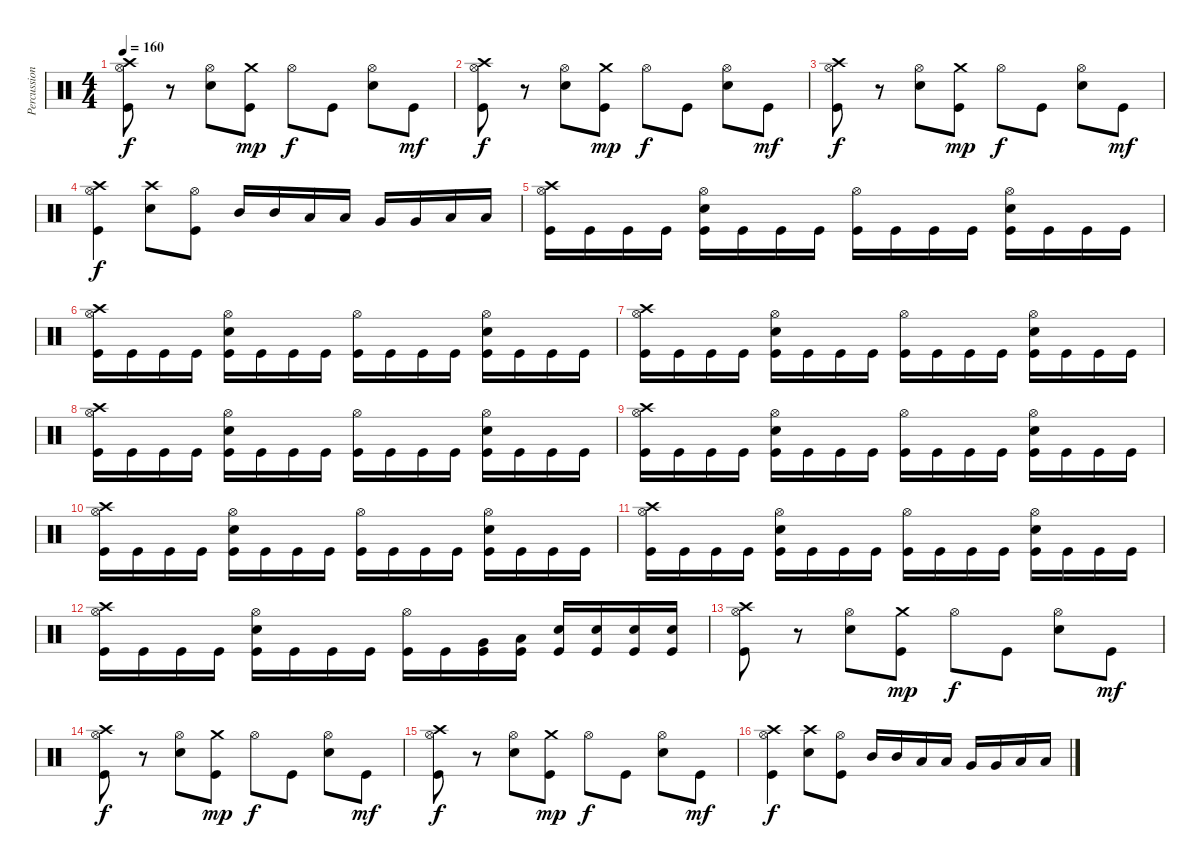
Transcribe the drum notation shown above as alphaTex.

\track ("Percussion" "Percussion") {instrument percussion}
\staff {score}
\articulation defaults
\ts (4 4)
\tempo 160
\clef neutral
\ks c
("Crash high (hit)" "Hi-Hat (open)" "Kick (hit)").8{dy f} r.8 ("Electric Snare (hit)" "Hi-Hat (open)").8 ("Crash medium (hit)" "Kick (hit)").8{dy mp} "Hi-Hat (open)".8{dy f} "Kick (hit)".8 ("Electric Snare (hit)" "Hi-Hat (open)").8 "Kick (hit)".8{dy mf} |
("Crash high (hit)" "Hi-Hat (open)" "Kick (hit)").8{dy f} r.8 ("Electric Snare (hit)" "Hi-Hat (open)").8 ("Crash medium (hit)" "Kick (hit)").8{dy mp} "Hi-Hat (open)".8{dy f} "Kick (hit)".8 ("Electric Snare (hit)" "Hi-Hat (open)").8 "Kick (hit)".8{dy mf} |
("Crash high (hit)" "Hi-Hat (open)" "Kick (hit)").8{dy f} r.8 ("Electric Snare (hit)" "Hi-Hat (open)").8 ("Crash medium (hit)" "Kick (hit)").8{dy mp} "Hi-Hat (open)".8{dy f} "Kick (hit)".8 ("Electric Snare (hit)" "Hi-Hat (open)").8 "Kick (hit)".8{dy mf} |
("Crash high (hit)" "Hi-Hat (open)" "Kick (hit)").4{dy f} ("Crash high (hit)" "Electric Snare (hit)").8 ("Hi-Hat (open)" "Kick (hit)").8 "Mid Tom (hit)".16 "Mid Tom (hit)".16 "Low Tom (hit)".16 "Low Tom (hit)".16 "Very Low Tom (hit)".16 "Very Low Tom (hit)".16 "Low Floor Tom (hit)".16 "Low Floor Tom (hit)".16 |
("Crash high (hit)" "Hi-Hat (open)" "Kick (hit)").16 "Kick (hit)".16 "Kick (hit)".16 "Kick (hit)".16 ("Electric Snare (hit)" "Hi-Hat (open)" "Kick (hit)").16 "Kick (hit)".16 "Kick (hit)".16 "Kick (hit)".16 ("Hi-Hat (open)" "Kick (hit)").16 "Kick (hit)".16 "Kick (hit)".16 "Kick (hit)".16 ("Electric Snare (hit)" "Hi-Hat (open)" "Kick (hit)").16 "Kick (hit)".16 "Kick (hit)".16 "Kick (hit)".16 |
("Crash high (hit)" "Hi-Hat (open)" "Kick (hit)").16 "Kick (hit)".16 "Kick (hit)".16 "Kick (hit)".16 ("Electric Snare (hit)" "Hi-Hat (open)" "Kick (hit)").16 "Kick (hit)".16 "Kick (hit)".16 "Kick (hit)".16 ("Hi-Hat (open)" "Kick (hit)").16 "Kick (hit)".16 "Kick (hit)".16 "Kick (hit)".16 ("Electric Snare (hit)" "Hi-Hat (open)" "Kick (hit)").16 "Kick (hit)".16 "Kick (hit)".16 "Kick (hit)".16 |
("Crash high (hit)" "Hi-Hat (open)" "Kick (hit)").16 "Kick (hit)".16 "Kick (hit)".16 "Kick (hit)".16 ("Electric Snare (hit)" "Hi-Hat (open)" "Kick (hit)").16 "Kick (hit)".16 "Kick (hit)".16 "Kick (hit)".16 ("Hi-Hat (open)" "Kick (hit)").16 "Kick (hit)".16 "Kick (hit)".16 "Kick (hit)".16 ("Electric Snare (hit)" "Hi-Hat (open)" "Kick (hit)").16 "Kick (hit)".16 "Kick (hit)".16 "Kick (hit)".16 |
("Crash high (hit)" "Hi-Hat (open)" "Kick (hit)").16 "Kick (hit)".16 "Kick (hit)".16 "Kick (hit)".16 ("Electric Snare (hit)" "Hi-Hat (open)" "Kick (hit)").16 "Kick (hit)".16 "Kick (hit)".16 "Kick (hit)".16 ("Hi-Hat (open)" "Kick (hit)").16 "Kick (hit)".16 "Kick (hit)".16 "Kick (hit)".16 ("Electric Snare (hit)" "Hi-Hat (open)" "Kick (hit)").16 "Kick (hit)".16 "Kick (hit)".16 "Kick (hit)".16 |
("Crash high (hit)" "Hi-Hat (open)" "Kick (hit)").16 "Kick (hit)".16 "Kick (hit)".16 "Kick (hit)".16 ("Electric Snare (hit)" "Hi-Hat (open)" "Kick (hit)").16 "Kick (hit)".16 "Kick (hit)".16 "Kick (hit)".16 ("Hi-Hat (open)" "Kick (hit)").16 "Kick (hit)".16 "Kick (hit)".16 "Kick (hit)".16 ("Electric Snare (hit)" "Hi-Hat (open)" "Kick (hit)").16 "Kick (hit)".16 "Kick (hit)".16 "Kick (hit)".16 |
("Crash high (hit)" "Hi-Hat (open)" "Kick (hit)").16 "Kick (hit)".16 "Kick (hit)".16 "Kick (hit)".16 ("Electric Snare (hit)" "Hi-Hat (open)" "Kick (hit)").16 "Kick (hit)".16 "Kick (hit)".16 "Kick (hit)".16 ("Hi-Hat (open)" "Kick (hit)").16 "Kick (hit)".16 "Kick (hit)".16 "Kick (hit)".16 ("Electric Snare (hit)" "Hi-Hat (open)" "Kick (hit)").16 "Kick (hit)".16 "Kick (hit)".16 "Kick (hit)".16 |
("Crash high (hit)" "Hi-Hat (open)" "Kick (hit)").16 "Kick (hit)".16 "Kick (hit)".16 "Kick (hit)".16 ("Electric Snare (hit)" "Hi-Hat (open)" "Kick (hit)").16 "Kick (hit)".16 "Kick (hit)".16 "Kick (hit)".16 ("Hi-Hat (open)" "Kick (hit)").16 "Kick (hit)".16 "Kick (hit)".16 "Kick (hit)".16 ("Electric Snare (hit)" "Hi-Hat (open)" "Kick (hit)").16 "Kick (hit)".16 "Kick (hit)".16 "Kick (hit)".16 |
("Crash high (hit)" "Hi-Hat (open)" "Kick (hit)").16 "Kick (hit)".16 "Kick (hit)".16 "Kick (hit)".16 ("Electric Snare (hit)" "Hi-Hat (open)" "Kick (hit)").16 "Kick (hit)".16 "Kick (hit)".16 "Kick (hit)".16 ("Hi-Hat (open)" "Kick (hit)").16 "Kick (hit)".16 ("Very Low Tom (hit)" "Kick (hit)").16 ("Low Floor Tom (hit)" "Kick (hit)").16 ("Electric Snare (hit)" "Kick (hit)").16 ("Electric Snare (hit)" "Kick (hit)").16 ("Electric Snare (hit)" "Kick (hit)").16 ("Electric Snare (hit)" "Kick (hit)").16 |
("Crash high (hit)" "Hi-Hat (open)" "Kick (hit)").8 r.8 ("Electric Snare (hit)" "Hi-Hat (open)").8 ("Crash medium (hit)" "Kick (hit)").8{dy mp} "Hi-Hat (open)".8{dy f} "Kick (hit)".8 ("Electric Snare (hit)" "Hi-Hat (open)").8 "Kick (hit)".8{dy mf} |
("Crash high (hit)" "Hi-Hat (open)" "Kick (hit)").8{dy f} r.8 ("Electric Snare (hit)" "Hi-Hat (open)").8 ("Crash medium (hit)" "Kick (hit)").8{dy mp} "Hi-Hat (open)".8{dy f} "Kick (hit)".8 ("Electric Snare (hit)" "Hi-Hat (open)").8 "Kick (hit)".8{dy mf} |
("Crash high (hit)" "Hi-Hat (open)" "Kick (hit)").8{dy f} r.8 ("Electric Snare (hit)" "Hi-Hat (open)").8 ("Crash medium (hit)" "Kick (hit)").8{dy mp} "Hi-Hat (open)".8{dy f} "Kick (hit)".8 ("Electric Snare (hit)" "Hi-Hat (open)").8 "Kick (hit)".8{dy mf} |
("Crash high (hit)" "Hi-Hat (open)" "Kick (hit)").4{dy f} ("Crash high (hit)" "Electric Snare (hit)").8 ("Hi-Hat (open)" "Kick (hit)").8 "Mid Tom (hit)".16 "Mid Tom (hit)".16 "Low Tom (hit)".16 "Low Tom (hit)".16 "Very Low Tom (hit)".16 "Very Low Tom (hit)".16 "Low Floor Tom (hit)".16 "Low Floor Tom (hit)".16
